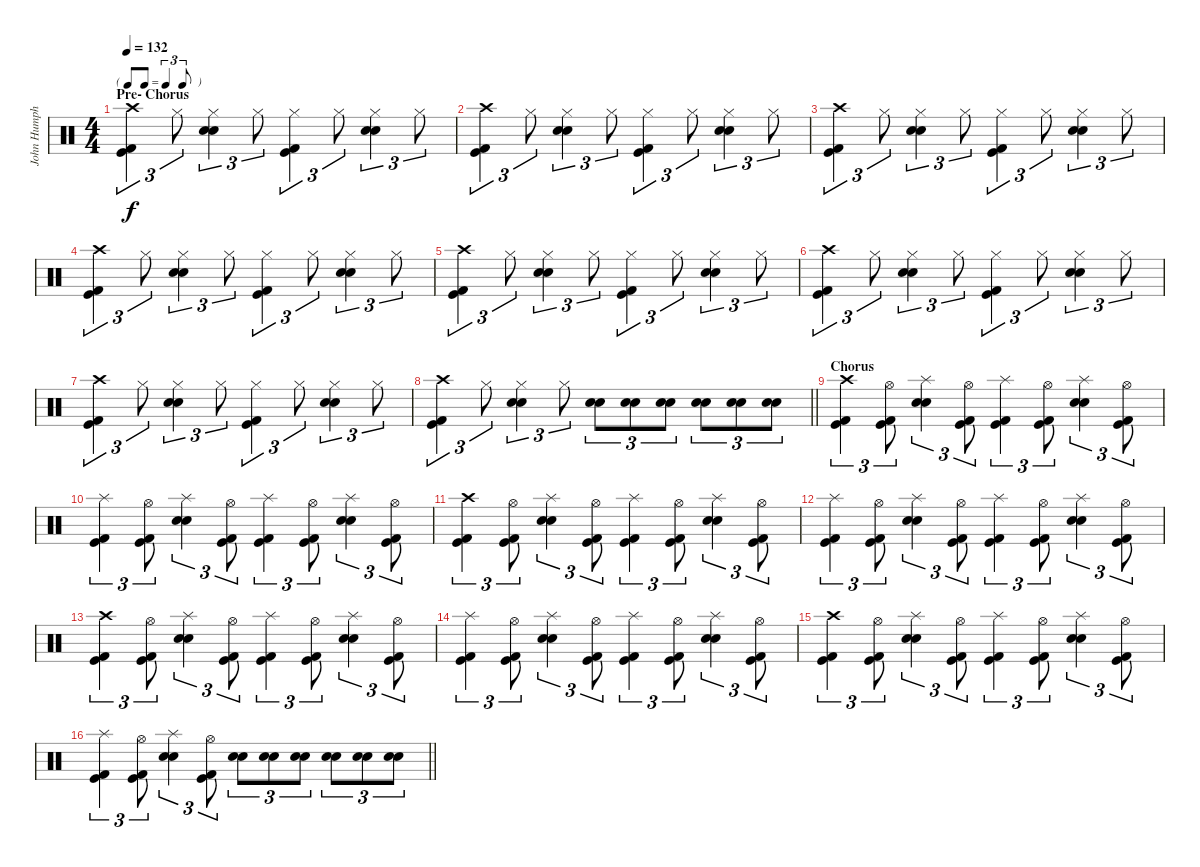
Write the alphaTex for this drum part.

\track ("John Humphrey" "John Humph") {instrument percussion}
\staff {score}
\articulation defaults
\ts (4 4)
\tf triplet8th
\section ("" "Pre- Chorus")
\tempo 132
\clef neutral
\ks c
("Crash high (hit)" "Kick (hit) 2" "Kick (hit)").4{tu (3 2) dy f} "Hi-Hat (closed)".8{tu (3 2)} ("Hi-Hat (closed)" "Electric Snare (hit)" "Snare (hit) 2").4{tu (3 2)} "Hi-Hat (closed)".8{tu (3 2)} ("Hi-Hat (closed)" "Kick (hit) 2" "Kick (hit)").4{tu (3 2)} "Hi-Hat (closed)".8{tu (3 2)} ("Hi-Hat (closed)" "Electric Snare (hit)" "Snare (hit) 2").4{tu (3 2)} "Hi-Hat (closed)".8{tu (3 2)} |
("Crash high (hit)" "Kick (hit) 2" "Kick (hit)").4{tu (3 2)} "Hi-Hat (closed)".8{tu (3 2)} ("Hi-Hat (closed)" "Electric Snare (hit)" "Snare (hit) 2").4{tu (3 2)} "Hi-Hat (closed)".8{tu (3 2)} ("Hi-Hat (closed)" "Kick (hit) 2" "Kick (hit)").4{tu (3 2)} "Hi-Hat (closed)".8{tu (3 2)} ("Hi-Hat (closed)" "Electric Snare (hit)" "Snare (hit) 2").4{tu (3 2)} "Hi-Hat (closed)".8{tu (3 2)} |
("Crash high (hit)" "Kick (hit) 2" "Kick (hit)").4{tu (3 2)} "Hi-Hat (closed)".8{tu (3 2)} ("Hi-Hat (closed)" "Electric Snare (hit)" "Snare (hit) 2").4{tu (3 2)} "Hi-Hat (closed)".8{tu (3 2)} ("Hi-Hat (closed)" "Kick (hit) 2" "Kick (hit)").4{tu (3 2)} "Hi-Hat (closed)".8{tu (3 2)} ("Hi-Hat (closed)" "Electric Snare (hit)" "Snare (hit) 2").4{tu (3 2)} "Hi-Hat (closed)".8{tu (3 2)} |
("Crash high (hit)" "Kick (hit) 2" "Kick (hit)").4{tu (3 2)} "Hi-Hat (closed)".8{tu (3 2)} ("Hi-Hat (closed)" "Electric Snare (hit)" "Snare (hit) 2").4{tu (3 2)} "Hi-Hat (closed)".8{tu (3 2)} ("Hi-Hat (closed)" "Kick (hit) 2" "Kick (hit)").4{tu (3 2)} "Hi-Hat (closed)".8{tu (3 2)} ("Hi-Hat (closed)" "Electric Snare (hit)" "Snare (hit) 2").4{tu (3 2)} "Hi-Hat (closed)".8{tu (3 2)} |
("Crash high (hit)" "Kick (hit) 2" "Kick (hit)").4{tu (3 2)} "Hi-Hat (closed)".8{tu (3 2)} ("Hi-Hat (closed)" "Electric Snare (hit)" "Snare (hit) 2").4{tu (3 2)} "Hi-Hat (closed)".8{tu (3 2)} ("Hi-Hat (closed)" "Kick (hit) 2" "Kick (hit)").4{tu (3 2)} "Hi-Hat (closed)".8{tu (3 2)} ("Hi-Hat (closed)" "Electric Snare (hit)" "Snare (hit) 2").4{tu (3 2)} "Hi-Hat (closed)".8{tu (3 2)} |
("Crash high (hit)" "Kick (hit) 2" "Kick (hit)").4{tu (3 2)} "Hi-Hat (closed)".8{tu (3 2)} ("Hi-Hat (closed)" "Electric Snare (hit)" "Snare (hit) 2").4{tu (3 2)} "Hi-Hat (closed)".8{tu (3 2)} ("Hi-Hat (closed)" "Kick (hit) 2" "Kick (hit)").4{tu (3 2)} "Hi-Hat (closed)".8{tu (3 2)} ("Hi-Hat (closed)" "Electric Snare (hit)" "Snare (hit) 2").4{tu (3 2)} "Hi-Hat (closed)".8{tu (3 2)} |
("Crash high (hit)" "Kick (hit) 2" "Kick (hit)").4{tu (3 2)} "Hi-Hat (closed)".8{tu (3 2)} ("Hi-Hat (closed)" "Electric Snare (hit)" "Snare (hit) 2").4{tu (3 2)} "Hi-Hat (closed)".8{tu (3 2)} ("Hi-Hat (closed)" "Kick (hit) 2" "Kick (hit)").4{tu (3 2)} "Hi-Hat (closed)".8{tu (3 2)} ("Hi-Hat (closed)" "Electric Snare (hit)" "Snare (hit) 2").4{tu (3 2)} "Hi-Hat (closed)".8{tu (3 2)} |
\barLineRight lightlight
("Crash high (hit)" "Kick (hit) 2" "Kick (hit)").4{tu (3 2)} "Hi-Hat (closed)".8{tu (3 2)} ("Hi-Hat (closed)" "Electric Snare (hit)" "Snare (hit) 2").4{tu (3 2)} "Hi-Hat (closed)".8{tu (3 2)} ("Electric Snare (hit)" "Snare (hit) 2").8{tu (3 2)} ("Electric Snare (hit)" "Snare (hit) 2").8{tu (3 2)} ("Electric Snare (hit)" "Snare (hit) 2").8{tu (3 2)} ("Electric Snare (hit)" "Snare (hit) 2").8{tu (3 2)} ("Electric Snare (hit)" "Snare (hit) 2").8{tu (3 2)} ("Electric Snare (hit)" "Snare (hit) 2").8{tu (3 2)} |
\section ("" "Chorus")
("Crash high (hit)" "Kick (hit) 2" "Kick (hit)").4{tu (3 2)} ("Hi-Hat (open)" "Kick (hit) 2" "Kick (hit)").8{tu (3 2)} ("Splash (hit)" "Electric Snare (hit)" "Snare (hit) 2").4{tu (3 2)} ("Hi-Hat (open)" "Kick (hit) 2" "Kick (hit)").8{tu (3 2)} ("Splash (hit)" "Kick (hit) 2" "Kick (hit)").4{tu (3 2)} ("Hi-Hat (open)" "Kick (hit) 2" "Kick (hit)").8{tu (3 2)} ("Splash (hit)" "Electric Snare (hit)" "Snare (hit) 2").4{tu (3 2)} ("Hi-Hat (open)" "Kick (hit) 2" "Kick (hit)").8{tu (3 2)} |
("Splash (hit)" "Kick (hit) 2" "Kick (hit)").4{tu (3 2)} ("Hi-Hat (open)" "Kick (hit) 2" "Kick (hit)").8{tu (3 2)} ("Splash (hit)" "Electric Snare (hit)" "Snare (hit) 2").4{tu (3 2)} ("Hi-Hat (open)" "Kick (hit) 2" "Kick (hit)").8{tu (3 2)} ("Splash (hit)" "Kick (hit) 2" "Kick (hit)").4{tu (3 2)} ("Hi-Hat (open)" "Kick (hit) 2" "Kick (hit)").8{tu (3 2)} ("Splash (hit)" "Electric Snare (hit)" "Snare (hit) 2").4{tu (3 2)} ("Hi-Hat (open)" "Kick (hit) 2" "Kick (hit)").8{tu (3 2)} |
("Crash high (hit)" "Kick (hit) 2" "Kick (hit)").4{tu (3 2)} ("Hi-Hat (open)" "Kick (hit) 2" "Kick (hit)").8{tu (3 2)} ("Splash (hit)" "Electric Snare (hit)" "Snare (hit) 2").4{tu (3 2)} ("Hi-Hat (open)" "Kick (hit) 2" "Kick (hit)").8{tu (3 2)} ("Splash (hit)" "Kick (hit) 2" "Kick (hit)").4{tu (3 2)} ("Hi-Hat (open)" "Kick (hit) 2" "Kick (hit)").8{tu (3 2)} ("Splash (hit)" "Electric Snare (hit)" "Snare (hit) 2").4{tu (3 2)} ("Hi-Hat (open)" "Kick (hit) 2" "Kick (hit)").8{tu (3 2)} |
("Splash (hit)" "Kick (hit) 2" "Kick (hit)").4{tu (3 2)} ("Hi-Hat (open)" "Kick (hit) 2" "Kick (hit)").8{tu (3 2)} ("Splash (hit)" "Electric Snare (hit)" "Snare (hit) 2").4{tu (3 2)} ("Hi-Hat (open)" "Kick (hit) 2" "Kick (hit)").8{tu (3 2)} ("Splash (hit)" "Kick (hit) 2" "Kick (hit)").4{tu (3 2)} ("Hi-Hat (open)" "Kick (hit) 2" "Kick (hit)").8{tu (3 2)} ("Splash (hit)" "Electric Snare (hit)" "Snare (hit) 2").4{tu (3 2)} ("Hi-Hat (open)" "Kick (hit) 2" "Kick (hit)").8{tu (3 2)} |
("Crash high (hit)" "Kick (hit) 2" "Kick (hit)").4{tu (3 2)} ("Hi-Hat (open)" "Kick (hit) 2" "Kick (hit)").8{tu (3 2)} ("Splash (hit)" "Electric Snare (hit)" "Snare (hit) 2").4{tu (3 2)} ("Hi-Hat (open)" "Kick (hit) 2" "Kick (hit)").8{tu (3 2)} ("Splash (hit)" "Kick (hit) 2" "Kick (hit)").4{tu (3 2)} ("Hi-Hat (open)" "Kick (hit) 2" "Kick (hit)").8{tu (3 2)} ("Splash (hit)" "Electric Snare (hit)" "Snare (hit) 2").4{tu (3 2)} ("Hi-Hat (open)" "Kick (hit) 2" "Kick (hit)").8{tu (3 2)} |
("Splash (hit)" "Kick (hit) 2" "Kick (hit)").4{tu (3 2)} ("Hi-Hat (open)" "Kick (hit) 2" "Kick (hit)").8{tu (3 2)} ("Splash (hit)" "Electric Snare (hit)" "Snare (hit) 2").4{tu (3 2)} ("Hi-Hat (open)" "Kick (hit) 2" "Kick (hit)").8{tu (3 2)} ("Splash (hit)" "Kick (hit) 2" "Kick (hit)").4{tu (3 2)} ("Hi-Hat (open)" "Kick (hit) 2" "Kick (hit)").8{tu (3 2)} ("Splash (hit)" "Electric Snare (hit)" "Snare (hit) 2").4{tu (3 2)} ("Hi-Hat (open)" "Kick (hit) 2" "Kick (hit)").8{tu (3 2)} |
("Crash high (hit)" "Kick (hit) 2" "Kick (hit)").4{tu (3 2)} ("Hi-Hat (open)" "Kick (hit) 2" "Kick (hit)").8{tu (3 2)} ("Splash (hit)" "Electric Snare (hit)" "Snare (hit) 2").4{tu (3 2)} ("Hi-Hat (open)" "Kick (hit) 2" "Kick (hit)").8{tu (3 2)} ("Splash (hit)" "Kick (hit) 2" "Kick (hit)").4{tu (3 2)} ("Hi-Hat (open)" "Kick (hit) 2" "Kick (hit)").8{tu (3 2)} ("Splash (hit)" "Electric Snare (hit)" "Snare (hit) 2").4{tu (3 2)} ("Hi-Hat (open)" "Kick (hit) 2" "Kick (hit)").8{tu (3 2)} |
\barLineRight lightlight
("Splash (hit)" "Kick (hit) 2" "Kick (hit)").4{tu (3 2)} ("Hi-Hat (open)" "Kick (hit) 2" "Kick (hit)").8{tu (3 2)} ("Splash (hit)" "Electric Snare (hit)" "Snare (hit) 2").4{tu (3 2)} ("Hi-Hat (open)" "Kick (hit) 2" "Kick (hit)").8{tu (3 2)} ("Electric Snare (hit)" "Snare (hit) 2").8{tu (3 2)} ("Electric Snare (hit)" "Snare (hit) 2").8{tu (3 2)} ("Electric Snare (hit)" "Snare (hit) 2").8{tu (3 2)} ("Electric Snare (hit)" "Snare (hit) 2").8{tu (3 2)} ("Electric Snare (hit)" "Snare (hit) 2").8{tu (3 2)} ("Electric Snare (hit)" "Snare (hit) 2").8{tu (3 2)}
